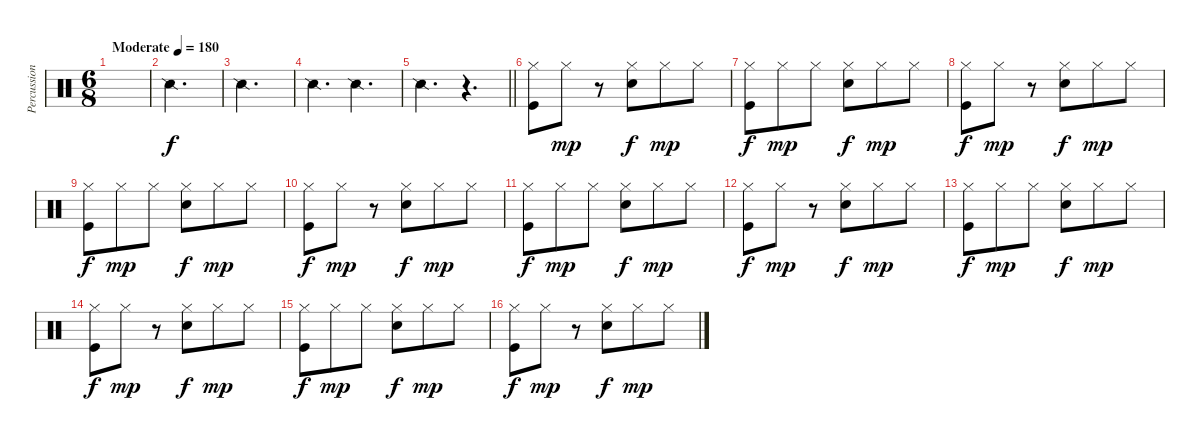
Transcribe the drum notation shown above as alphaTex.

\track ("Percussions" "Percussion") {instrument percussion}
\staff {score}
\articulation defaults
\ts (6 8)
\tempo (180 "Moderate")
\clef neutral
\ks c
|
"Snare (side stick) 2".2{d} |
"Snare (side stick) 2".2{d} |
"Snare (side stick) 2".4{d} "Snare (side stick) 2".4{d} |
\barLineRight lightlight "Snare (side stick) 2".4{d}
r.4{d} |
("Hi-Hat (closed)" "Kick (hit)").8 "Hi-Hat (closed)".8{dy mp} r.8 ("Hi-Hat (closed)" "Snare (hit) 2").8{dy f} "Hi-Hat (closed)".8{dy mp} "Hi-Hat (closed)".8 |
("Hi-Hat (closed)" "Kick (hit)").8{dy f} "Hi-Hat (closed)".8{dy mp} "Hi-Hat (closed)".8 ("Hi-Hat (closed)" "Snare (hit) 2").8{dy f} "Hi-Hat (closed)".8{dy mp} "Hi-Hat (closed)".8 |
("Hi-Hat (closed)" "Kick (hit)").8{dy f} "Hi-Hat (closed)".8{dy mp} r.8 ("Hi-Hat (closed)" "Snare (hit) 2").8{dy f} "Hi-Hat (closed)".8{dy mp} "Hi-Hat (closed)".8 |
("Hi-Hat (closed)" "Kick (hit)").8{dy f} "Hi-Hat (closed)".8{dy mp} "Hi-Hat (closed)".8 ("Hi-Hat (closed)" "Snare (hit) 2").8{dy f} "Hi-Hat (closed)".8{dy mp} "Hi-Hat (closed)".8 |
("Hi-Hat (closed)" "Kick (hit)").8{dy f} "Hi-Hat (closed)".8{dy mp} r.8 ("Hi-Hat (closed)" "Snare (hit) 2").8{dy f} "Hi-Hat (closed)".8{dy mp} "Hi-Hat (closed)".8 |
("Hi-Hat (closed)" "Kick (hit)").8{dy f} "Hi-Hat (closed)".8{dy mp} "Hi-Hat (closed)".8 ("Hi-Hat (closed)" "Snare (hit) 2").8{dy f} "Hi-Hat (closed)".8{dy mp} "Hi-Hat (closed)".8 |
("Hi-Hat (closed)" "Kick (hit)").8{dy f} "Hi-Hat (closed)".8{dy mp} r.8 ("Hi-Hat (closed)" "Snare (hit) 2").8{dy f} "Hi-Hat (closed)".8{dy mp} "Hi-Hat (closed)".8 |
("Hi-Hat (closed)" "Kick (hit)").8{dy f} "Hi-Hat (closed)".8{dy mp} "Hi-Hat (closed)".8 ("Hi-Hat (closed)" "Snare (hit) 2").8{dy f} "Hi-Hat (closed)".8{dy mp} "Hi-Hat (closed)".8 |
("Hi-Hat (closed)" "Kick (hit)").8{dy f} "Hi-Hat (closed)".8{dy mp} r.8 ("Hi-Hat (closed)" "Snare (hit) 2").8{dy f} "Hi-Hat (closed)".8{dy mp} "Hi-Hat (closed)".8 |
("Hi-Hat (closed)" "Kick (hit)").8{dy f} "Hi-Hat (closed)".8{dy mp} "Hi-Hat (closed)".8 ("Hi-Hat (closed)" "Snare (hit) 2").8{dy f} "Hi-Hat (closed)".8{dy mp} "Hi-Hat (closed)".8 |
("Hi-Hat (closed)" "Kick (hit)").8{dy f} "Hi-Hat (closed)".8{dy mp} r.8 ("Hi-Hat (closed)" "Snare (hit) 2").8{dy f} "Hi-Hat (closed)".8{dy mp} "Hi-Hat (closed)".8
